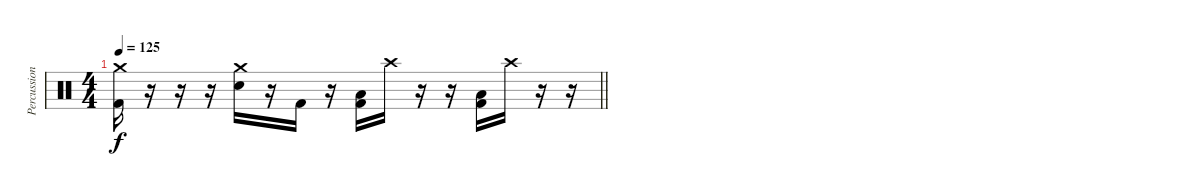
\track ("Percussion" "Percussion") {instrument percussion}
\staff {score}
\articulation defaults
\ts (4 4)
\tempo 125
\clef neutral
\barLineRight lightlight
\ks c
("Crash medium (hit)" "Kick (hit) 2").16{dy f} r.16 r.16 r.16 ("Crash medium (hit)" "Electric Snare (hit)").16 r.16 "Kick (hit) 2".16 r.16 ("Low Floor Tom (hit)" "Kick (hit) 2").16 "Crash high (hit)".16 r.16 r.16 ("Low Floor Tom (hit)" "Kick (hit) 2").16 "Crash high (hit)".16 r.16 r.16
